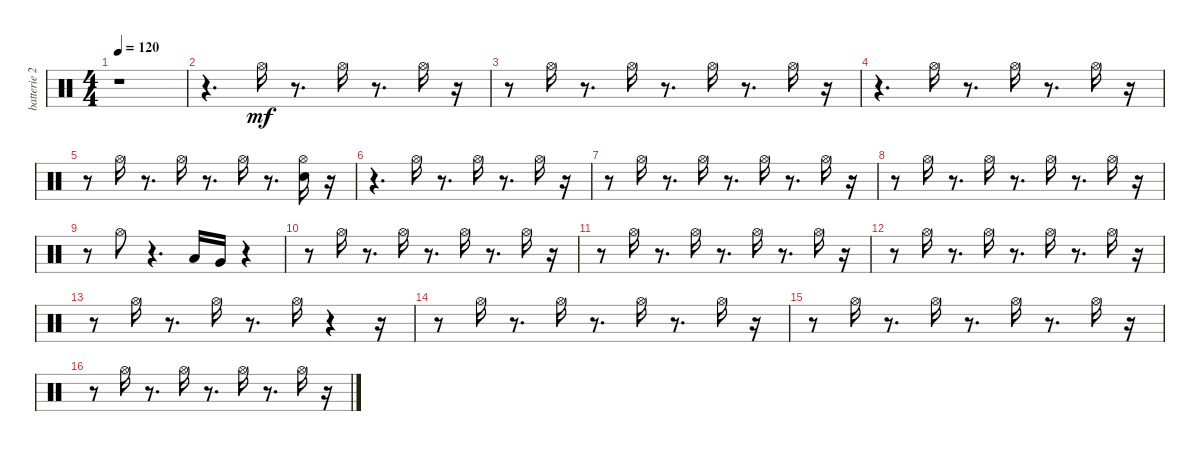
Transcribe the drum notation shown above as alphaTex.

\track ("batterie 2" "batterie 2") {instrument percussion}
\staff {score}
\articulation defaults
\ts (4 4)
\tempo 120
\clef neutral
\ks c
r.1{dy mf} |
r.4{d} "Hi-Hat (open)".16 r.8{d} "Hi-Hat (open)".16 r.8{d} "Hi-Hat (open)".16 r.16 |
r.8 "Hi-Hat (open)".16 r.8{d} "Hi-Hat (open)".16 r.8{d} "Hi-Hat (open)".16 r.8{d} "Hi-Hat (open)".16 r.16 |
r.4{d} "Hi-Hat (open)".16 r.8{d} "Hi-Hat (open)".16 r.8{d} "Hi-Hat (open)".16 r.16 |
r.8 "Hi-Hat (open)".16 r.8{d} "Hi-Hat (open)".16 r.8{d} "Hi-Hat (open)".16 r.8{d} ("Electric Snare (hit)" "Hi-Hat (open)").16 r.16 |
r.4{d} "Hi-Hat (open)".16 r.8{d} "Hi-Hat (open)".16 r.8{d} "Hi-Hat (open)".16 r.16 |
r.8 "Hi-Hat (open)".16 r.8{d} "Hi-Hat (open)".16 r.8{d} "Hi-Hat (open)".16 r.8{d} "Hi-Hat (open)".16 r.16 |
r.8 "Hi-Hat (open)".16 r.8{d} "Hi-Hat (open)".16 r.8{d} "Hi-Hat (open)".16 r.8{d} "Hi-Hat (open)".16 r.16 |
r.8 "Hi-Hat (open)".8 r.4{d} "Low Tom (hit)".16 "Very Low Tom (hit)".16 r.4 |
r.8 "Hi-Hat (open)".16 r.8{d} "Hi-Hat (open)".16 r.8{d} "Hi-Hat (open)".16 r.8{d} "Hi-Hat (open)".16 r.16 |
r.8 "Hi-Hat (open)".16 r.8{d} "Hi-Hat (open)".16 r.8{d} "Hi-Hat (open)".16 r.8{d} "Hi-Hat (open)".16 r.16 |
r.8 "Hi-Hat (open)".16 r.8{d} "Hi-Hat (open)".16 r.8{d} "Hi-Hat (open)".16 r.8{d} "Hi-Hat (open)".16 r.16 |
r.8 "Hi-Hat (open)".16 r.8{d} "Hi-Hat (open)".16 r.8{d} "Hi-Hat (open)".16 r.4 r.16 |
r.8 "Hi-Hat (open)".16 r.8{d} "Hi-Hat (open)".16 r.8{d} "Hi-Hat (open)".16 r.8{d} "Hi-Hat (open)".16 r.16 |
r.8 "Hi-Hat (open)".16 r.8{d} "Hi-Hat (open)".16 r.8{d} "Hi-Hat (open)".16 r.8{d} "Hi-Hat (open)".16 r.16 |
r.8 "Hi-Hat (open)".16 r.8{d} "Hi-Hat (open)".16 r.8{d} "Hi-Hat (open)".16 r.8{d} "Hi-Hat (open)".16 r.16
